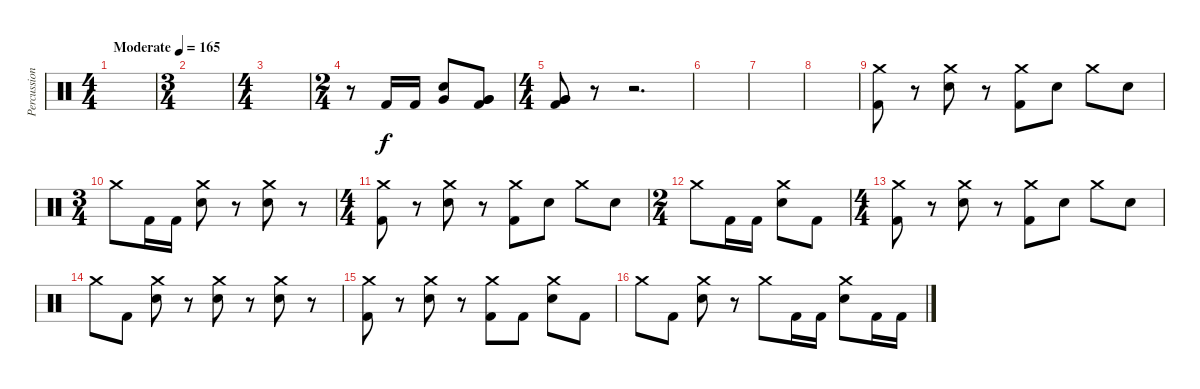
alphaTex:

\track ("Percussion" "Percussion") {instrument percussion}
\staff {score}
\articulation defaults
\ts (4 4)
\tempo (165 "Moderate")
\clef neutral
\ks c
|
\ts (3 4)
|
\ts (4 4)
|
\ts (2 4)
r.8 "Kick (hit) 2".16 "Kick (hit) 2".16 ("Very Low Tom (hit)" "Electric Snare (hit)").8 ("Very Low Tom (hit)" "Very Low Tom (hit)" "Kick (hit) 2").8 |
\ts (4 4)
("Very Low Tom (hit)" "Very Low Tom (hit)" "Kick (hit) 2").8 r.8 r.2{d} |
|
|
|
("Crash medium (hit)" "Kick (hit) 2").8 r.8 ("Crash medium (hit)" "Electric Snare (hit)").8 r.8 ("Crash medium (hit)" "Kick (hit) 2").8 "Electric Snare (hit)".8 "Crash medium (hit)".8 "Electric Snare (hit)".8 |
\ts (3 4)
"Crash medium (hit)".8 "Kick (hit) 2".16 "Kick (hit) 2".16 ("Crash medium (hit)" "Electric Snare (hit)").8 r.8 ("Crash medium (hit)" "Electric Snare (hit)").8 r.8 |
\ts (4 4)
("Crash medium (hit)" "Kick (hit) 2").8 r.8 ("Crash medium (hit)" "Electric Snare (hit)").8 r.8 ("Crash medium (hit)" "Kick (hit) 2").8 "Electric Snare (hit)".8 "Crash medium (hit)".8 "Electric Snare (hit)".8 |
\ts (2 4)
"Crash medium (hit)".8 "Kick (hit) 2".16 "Kick (hit) 2".16 ("Crash medium (hit)" "Electric Snare (hit)").8 "Kick (hit) 2".8 |
\ts (4 4)
("Crash medium (hit)" "Kick (hit) 2").8 r.8 ("Crash medium (hit)" "Electric Snare (hit)").8 r.8 ("Crash medium (hit)" "Kick (hit) 2").8 "Electric Snare (hit)".8 "Crash medium (hit)".8 "Electric Snare (hit)".8 |
"Crash medium (hit)".8 "Kick (hit) 2".8 ("Crash medium (hit)" "Electric Snare (hit)").8 r.8 ("Crash medium (hit)" "Electric Snare (hit)").8 r.8 ("Crash medium (hit)" "Electric Snare (hit)").8 r.8 |
("Crash medium (hit)" "Kick (hit) 2").8 r.8 ("Crash medium (hit)" "Electric Snare (hit)").8 r.8 ("Crash medium (hit)" "Kick (hit) 2").8 "Kick (hit) 2".8 ("Crash medium (hit)" "Electric Snare (hit)").8 "Kick (hit) 2".8 |
"Crash medium (hit)".8 "Kick (hit) 2".8 ("Crash medium (hit)" "Electric Snare (hit)").8 r.8 "Crash medium (hit)".8 "Kick (hit) 2".16 "Kick (hit) 2".16 ("Crash medium (hit)" "Electric Snare (hit)").8 "Kick (hit) 2".16 "Kick (hit) 2".16
